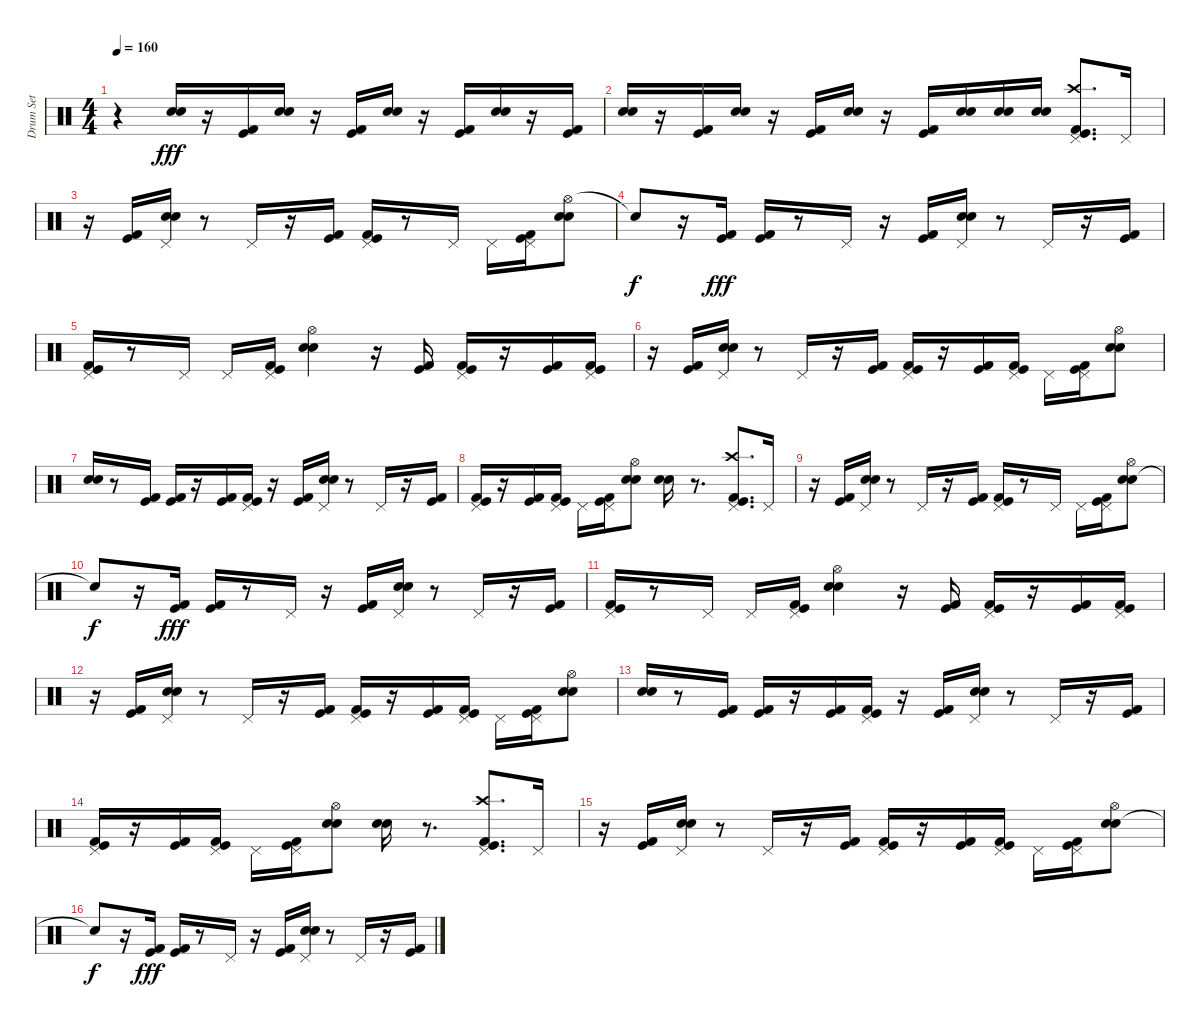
\track ("Drum Set" "Drum Set") {instrument percussion}
\staff {score}
\articulation defaults
\ts (4 4)
\tempo 160
\clef neutral
\ks c
r.4{dy fff} ("Electric Snare (hit)" "Snare (hit) 2").16 r.16 ("Kick (hit) 2" "Kick (hit)").16 ("Snare (hit) 2" "Electric Snare (hit)").16 r.16 ("Kick (hit)" "Kick (hit) 2").16 ("Snare (hit) 2" "Electric Snare (hit)").16 r.16 ("Kick (hit) 2" "Kick (hit)").16 ("Snare (hit) 2" "Electric Snare (hit)").16 r.16 ("Kick (hit) 2" "Kick (hit)").16 |
("Snare (hit) 2" "Electric Snare (hit)").16 r.16 ("Kick (hit) 2" "Kick (hit)").16 ("Snare (hit) 2" "Electric Snare (hit)").16 r.16 ("Kick (hit)" "Kick (hit) 2").16 ("Snare (hit) 2" "Electric Snare (hit)").16 r.16 ("Kick (hit)" "Kick (hit) 2").16 ("Snare (hit) 2" "Electric Snare (hit)").16 ("Snare (hit) 2" "Electric Snare (hit)").16 ("Snare (hit) 2" "Electric Snare (hit)").16 ("Crash high (hit)" "Kick (hit) 2" "Kick (hit)" "Pedal Hi-Hat (hit)").8{d} "Pedal Hi-Hat (hit)".16 |
r.16 ("Kick (hit) 2" "Kick (hit)").16 ("Electric Snare (hit)" "Snare (hit) 2" "Pedal Hi-Hat (hit)").16 r.8 "Pedal Hi-Hat (hit)".16 r.16 ("Kick (hit)" "Kick (hit) 2").16 ("Pedal Hi-Hat (hit)" "Kick (hit)" "Kick (hit) 2").16 r.8 "Pedal Hi-Hat (hit)".16 "Pedal Hi-Hat (hit)".16 ("Pedal Hi-Hat (hit)" "Kick (hit)" "Kick (hit) 2").16 ("Hi-Hat (open)" "Electric Snare (hit)" "Snare (hit) 2").8 |
"Snare (hit)"{t}.8{dy f} r.16 ("Kick (hit)" "Kick (hit) 2").16{dy fff} ("Kick (hit) 2" "Kick (hit)").16 r.8 "Pedal Hi-Hat (hit)".16 r.16 ("Kick (hit) 2" "Kick (hit)").16 ("Pedal Hi-Hat (hit)" "Electric Snare (hit)" "Snare (hit) 2").16 r.8 "Pedal Hi-Hat (hit)".16 r.16 ("Kick (hit)" "Kick (hit) 2").16 |
("Pedal Hi-Hat (hit)" "Kick (hit)" "Kick (hit) 2").16 r.8 "Pedal Hi-Hat (hit)".16 "Pedal Hi-Hat (hit)".16 ("Pedal Hi-Hat (hit)" "Kick (hit)" "Kick (hit) 2").16 ("Hi-Hat (open)" "Electric Snare (hit)" "Snare (hit) 2").4 r.16 ("Kick (hit)" "Kick (hit) 2").16 ("Kick (hit)" "Kick (hit) 2" "Pedal Hi-Hat (hit)").16 r.16 ("Kick (hit)" "Kick (hit) 2").16 ("Kick (hit)" "Kick (hit) 2" "Pedal Hi-Hat (hit)").16 |
r.16 ("Kick (hit)" "Kick (hit) 2").16 ("Electric Snare (hit)" "Snare (hit) 2" "Pedal Hi-Hat (hit)").16 r.8 "Pedal Hi-Hat (hit)".16 r.16 ("Kick (hit)" "Kick (hit) 2").16 ("Kick (hit)" "Kick (hit) 2" "Pedal Hi-Hat (hit)").16 r.16 ("Kick (hit)" "Kick (hit) 2").16 ("Kick (hit) 2" "Kick (hit)" "Pedal Hi-Hat (hit)").16 "Pedal Hi-Hat (hit)".16 ("Kick (hit)" "Kick (hit) 2" "Pedal Hi-Hat (hit)").16 ("Snare (hit) 2" "Electric Snare (hit)" "Hi-Hat (open)").8 |
("Electric Snare (hit)" "Snare (hit) 2").16 r.8 ("Kick (hit)" "Kick (hit) 2").16 ("Kick (hit)" "Kick (hit) 2").16 r.16 ("Kick (hit)" "Kick (hit) 2").16 ("Pedal Hi-Hat (hit)" "Kick (hit)" "Kick (hit) 2").16 r.16 ("Kick (hit)" "Kick (hit) 2").16 ("Pedal Hi-Hat (hit)" "Electric Snare (hit)" "Snare (hit) 2").16 r.8 "Pedal Hi-Hat (hit)".16 r.16 ("Kick (hit)" "Kick (hit) 2").16 |
("Pedal Hi-Hat (hit)" "Kick (hit)" "Kick (hit) 2").16 r.16 ("Kick (hit)" "Kick (hit) 2").16 ("Pedal Hi-Hat (hit)" "Kick (hit) 2" "Kick (hit)").16 "Pedal Hi-Hat (hit)".16 ("Pedal Hi-Hat (hit)" "Kick (hit)" "Kick (hit) 2").16 ("Hi-Hat (open)" "Snare (hit) 2" "Electric Snare (hit)").8 ("Electric Snare (hit)" "Snare (hit) 2").16 r.8{d} ("Crash high (hit)" "Kick (hit) 2" "Kick (hit)" "Pedal Hi-Hat (hit)").8{d} "Pedal Hi-Hat (hit)".16 |
r.16 ("Kick (hit) 2" "Kick (hit)").16 ("Electric Snare (hit)" "Snare (hit) 2" "Pedal Hi-Hat (hit)").16 r.8 "Pedal Hi-Hat (hit)".16 r.16 ("Kick (hit)" "Kick (hit) 2").16 ("Kick (hit)" "Kick (hit) 2" "Pedal Hi-Hat (hit)").16 r.8 "Pedal Hi-Hat (hit)".16 "Pedal Hi-Hat (hit)".16 ("Kick (hit)" "Kick (hit) 2" "Pedal Hi-Hat (hit)").16 ("Electric Snare (hit)" "Snare (hit) 2" "Hi-Hat (open)").8 |
"Snare (hit)"{t}.8{dy f} r.16 ("Kick (hit)" "Kick (hit) 2").16{dy fff} ("Kick (hit) 2" "Kick (hit)").16 r.8 "Pedal Hi-Hat (hit)".16 r.16 ("Kick (hit) 2" "Kick (hit)").16 ("Pedal Hi-Hat (hit)" "Electric Snare (hit)" "Snare (hit) 2").16 r.8 "Pedal Hi-Hat (hit)".16 r.16 ("Kick (hit)" "Kick (hit) 2").16 |
("Pedal Hi-Hat (hit)" "Kick (hit)" "Kick (hit) 2").16 r.8 "Pedal Hi-Hat (hit)".16 "Pedal Hi-Hat (hit)".16 ("Pedal Hi-Hat (hit)" "Kick (hit)" "Kick (hit) 2").16 ("Hi-Hat (open)" "Electric Snare (hit)" "Snare (hit) 2").4 r.16 ("Kick (hit)" "Kick (hit) 2").16 ("Kick (hit)" "Kick (hit) 2" "Pedal Hi-Hat (hit)").16 r.16 ("Kick (hit)" "Kick (hit) 2").16 ("Kick (hit)" "Kick (hit) 2" "Pedal Hi-Hat (hit)").16 |
r.16 ("Kick (hit)" "Kick (hit) 2").16 ("Electric Snare (hit)" "Snare (hit) 2" "Pedal Hi-Hat (hit)").16 r.8 "Pedal Hi-Hat (hit)".16 r.16 ("Kick (hit)" "Kick (hit) 2").16 ("Kick (hit)" "Kick (hit) 2" "Pedal Hi-Hat (hit)").16 r.16 ("Kick (hit)" "Kick (hit) 2").16 ("Kick (hit) 2" "Kick (hit)" "Pedal Hi-Hat (hit)").16 "Pedal Hi-Hat (hit)".16 ("Kick (hit)" "Kick (hit) 2" "Pedal Hi-Hat (hit)").16 ("Snare (hit) 2" "Electric Snare (hit)" "Hi-Hat (open)").8 |
("Electric Snare (hit)" "Snare (hit) 2").16 r.8 ("Kick (hit)" "Kick (hit) 2").16 ("Kick (hit)" "Kick (hit) 2").16 r.16 ("Kick (hit)" "Kick (hit) 2").16 ("Pedal Hi-Hat (hit)" "Kick (hit)" "Kick (hit) 2").16 r.16 ("Kick (hit)" "Kick (hit) 2").16 ("Pedal Hi-Hat (hit)" "Electric Snare (hit)" "Snare (hit) 2").16 r.8 "Pedal Hi-Hat (hit)".16 r.16 ("Kick (hit)" "Kick (hit) 2").16 |
("Pedal Hi-Hat (hit)" "Kick (hit)" "Kick (hit) 2").16 r.16 ("Kick (hit)" "Kick (hit) 2").16 ("Pedal Hi-Hat (hit)" "Kick (hit) 2" "Kick (hit)").16 "Pedal Hi-Hat (hit)".16 ("Pedal Hi-Hat (hit)" "Kick (hit)" "Kick (hit) 2").16 ("Hi-Hat (open)" "Snare (hit) 2" "Electric Snare (hit)").8 ("Electric Snare (hit)" "Snare (hit) 2").16 r.8{d} ("Kick (hit)" "Kick (hit) 2" "Crash high (hit)" "Pedal Hi-Hat (hit)").8{d} "Pedal Hi-Hat (hit)".16 |
r.16 ("Kick (hit) 2" "Kick (hit)").16 ("Electric Snare (hit)" "Snare (hit) 2" "Pedal Hi-Hat (hit)").16 r.8 "Pedal Hi-Hat (hit)".16 r.16 ("Kick (hit) 2" "Kick (hit)").16 ("Kick (hit)" "Kick (hit) 2" "Pedal Hi-Hat (hit)").16 r.16 ("Kick (hit) 2" "Kick (hit)").16 ("Kick (hit)" "Kick (hit) 2" "Pedal Hi-Hat (hit)").16 "Pedal Hi-Hat (hit)".16 ("Kick (hit)" "Kick (hit) 2" "Pedal Hi-Hat (hit)").16 ("Snare (hit) 2" "Electric Snare (hit)" "Hi-Hat (open)").8 |
"Snare (hit)"{t}.8{dy f} r.16 ("Kick (hit)" "Kick (hit) 2").16{dy fff} ("Kick (hit)" "Kick (hit) 2").16 r.8 "Pedal Hi-Hat (hit)".16 r.16 ("Kick (hit) 2" "Kick (hit)").16 ("Snare (hit) 2" "Electric Snare (hit)" "Pedal Hi-Hat (hit)").16 r.8 "Pedal Hi-Hat (hit)".16 r.16 ("Kick (hit)" "Kick (hit) 2").16
